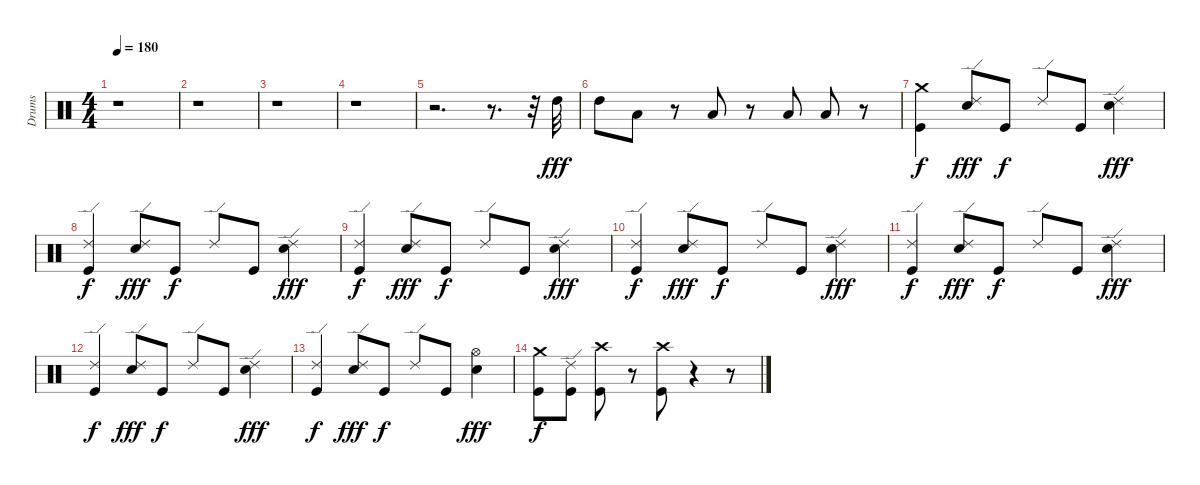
\track ("Drums" "Drums") {instrument percussion}
\staff {score}
\articulation defaults
\ts (4 4)
\tempo 180
\clef neutral
\ks c
r.1{dy fff} |
r.1 |
r.1 |
r.1 |
r.2{d} r.8{d} r.32 "High Tom (hit)".32 |
"High Tom (hit)".8 "Low Tom (hit)".8 r.8 "Low Tom (hit)".8 r.8 "Low Tom (hit)".8 "Low Tom (hit)".8 r.8 |
("Crash medium (hit)" "Kick (hit)").4{dy f} ("Ride (edge) 2" "Snare (hit) 2").8{dy fff} "Kick (hit)".8{dy f} "Ride (edge) 2".8 "Kick (hit)".8 ("Snare (hit) 2" "Ride (edge) 2").4{dy fff} |
("Ride (edge) 2" "Kick (hit)").4{dy f} ("Ride (edge) 2" "Snare (hit) 2").8{dy fff} "Kick (hit)".8{dy f} "Ride (edge) 2".8 "Kick (hit)".8 ("Snare (hit) 2" "Ride (edge) 2").4{dy fff} |
("Ride (edge) 2" "Kick (hit)").4{dy f} ("Ride (edge) 2" "Snare (hit) 2").8{dy fff} "Kick (hit)".8{dy f} "Ride (edge) 2".8 "Kick (hit)".8 ("Snare (hit) 2" "Ride (edge) 2").4{dy fff} |
("Ride (edge) 2" "Kick (hit)").4{dy f} ("Ride (edge) 2" "Snare (hit) 2").8{dy fff} "Kick (hit)".8{dy f} "Ride (edge) 2".8 "Kick (hit)".8 ("Snare (hit) 2" "Ride (edge) 2").4{dy fff} |
("Ride (edge) 2" "Kick (hit)").4{dy f} ("Ride (edge) 2" "Snare (hit) 2").8{dy fff} "Kick (hit)".8{dy f} "Ride (edge) 2".8 "Kick (hit)".8 ("Snare (hit) 2" "Ride (edge) 2").4{dy fff} |
("Ride (edge) 2" "Kick (hit)").4{dy f} ("Ride (edge) 2" "Snare (hit) 2").8{dy fff} "Kick (hit)".8{dy f} "Ride (edge) 2".8 "Kick (hit)".8 ("Snare (hit) 2" "Ride (edge) 2").4{dy fff} |
("Ride (edge) 2" "Kick (hit)").4{dy f} ("Ride (edge) 2" "Snare (hit) 2").8{dy fff} "Kick (hit)".8{dy f} "Ride (edge) 2".8 "Kick (hit)".8 ("Snare (hit) 2" "Hi-Hat (open)").4{dy fff} |
("Crash medium (hit)" "Kick (hit)").8{dy f} ("Ride (edge) 2" "Kick (hit)").8 ("Crash high (hit)" "Kick (hit)").8 r.8 ("Crash high (hit)" "Kick (hit)").8 r.4 r.8
